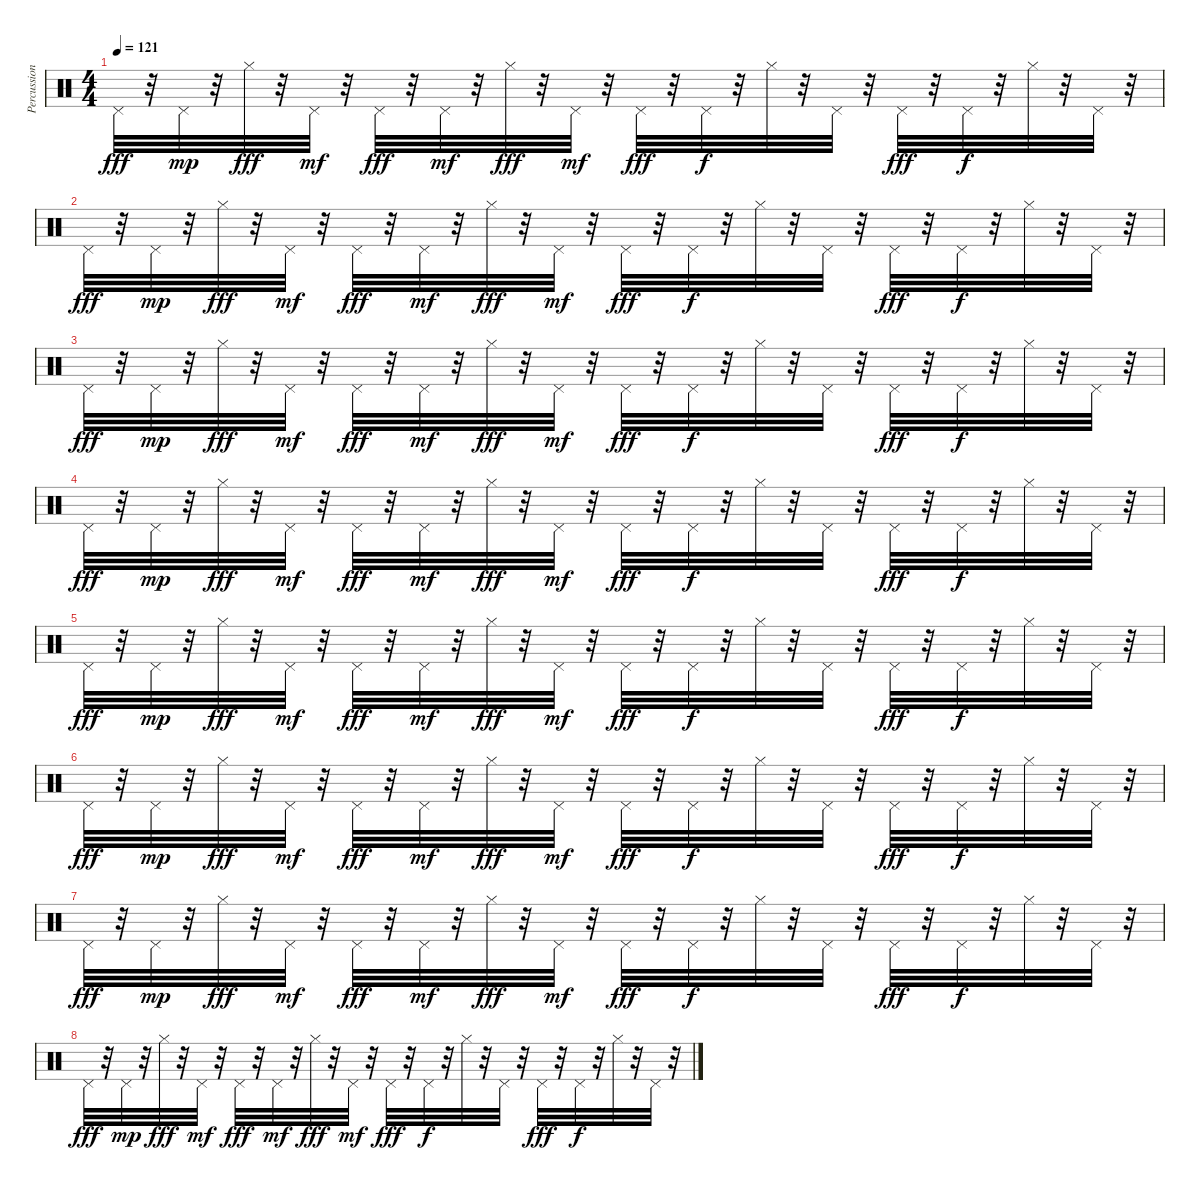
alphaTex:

\track ("Percussions" "Percussion") {instrument percussion}
\staff {score}
\articulation defaults
\ts (4 4)
\tempo 121
\clef neutral
\ks c "Pedal Hi-Hat (hit)".32{dy fff}
r.32 "Pedal Hi-Hat (hit)".32{dy mp} r.32 "Hi-Hat (closed)".32{dy fff} r.32 "Pedal Hi-Hat (hit)".32{dy mf} r.32 "Pedal Hi-Hat (hit)".32{dy fff} r.32 "Pedal Hi-Hat (hit)".32{dy mf} r.32 "Hi-Hat (closed)".32{dy fff} r.32 "Pedal Hi-Hat (hit)".32{dy mf} r.32 "Pedal Hi-Hat (hit)".32{dy fff} r.32 "Pedal Hi-Hat (hit)".32{dy f} r.32 "Hi-Hat (closed)".32 r.32 "Pedal Hi-Hat (hit)".32 r.32 "Pedal Hi-Hat (hit)".32{dy fff} r.32 "Pedal Hi-Hat (hit)".32{dy f} r.32 "Hi-Hat (closed)".32 r.32 "Pedal Hi-Hat (hit)".32 r.32 |
"Pedal Hi-Hat (hit)".32{dy fff} r.32 "Pedal Hi-Hat (hit)".32{dy mp} r.32 "Hi-Hat (closed)".32{dy fff} r.32 "Pedal Hi-Hat (hit)".32{dy mf} r.32 "Pedal Hi-Hat (hit)".32{dy fff} r.32 "Pedal Hi-Hat (hit)".32{dy mf} r.32 "Hi-Hat (closed)".32{dy fff} r.32 "Pedal Hi-Hat (hit)".32{dy mf} r.32 "Pedal Hi-Hat (hit)".32{dy fff} r.32 "Pedal Hi-Hat (hit)".32{dy f} r.32 "Hi-Hat (closed)".32 r.32 "Pedal Hi-Hat (hit)".32 r.32 "Pedal Hi-Hat (hit)".32{dy fff} r.32 "Pedal Hi-Hat (hit)".32{dy f} r.32 "Hi-Hat (closed)".32 r.32 "Pedal Hi-Hat (hit)".32 r.32 |
"Pedal Hi-Hat (hit)".32{dy fff} r.32 "Pedal Hi-Hat (hit)".32{dy mp} r.32 "Hi-Hat (closed)".32{dy fff} r.32 "Pedal Hi-Hat (hit)".32{dy mf} r.32 "Pedal Hi-Hat (hit)".32{dy fff} r.32 "Pedal Hi-Hat (hit)".32{dy mf} r.32 "Hi-Hat (closed)".32{dy fff} r.32 "Pedal Hi-Hat (hit)".32{dy mf} r.32 "Pedal Hi-Hat (hit)".32{dy fff} r.32 "Pedal Hi-Hat (hit)".32{dy f} r.32 "Hi-Hat (closed)".32 r.32 "Pedal Hi-Hat (hit)".32 r.32 "Pedal Hi-Hat (hit)".32{dy fff} r.32 "Pedal Hi-Hat (hit)".32{dy f} r.32 "Hi-Hat (closed)".32 r.32 "Pedal Hi-Hat (hit)".32 r.32 |
"Pedal Hi-Hat (hit)".32{dy fff} r.32 "Pedal Hi-Hat (hit)".32{dy mp} r.32 "Hi-Hat (closed)".32{dy fff} r.32 "Pedal Hi-Hat (hit)".32{dy mf} r.32 "Pedal Hi-Hat (hit)".32{dy fff} r.32 "Pedal Hi-Hat (hit)".32{dy mf} r.32 "Hi-Hat (closed)".32{dy fff} r.32 "Pedal Hi-Hat (hit)".32{dy mf} r.32 "Pedal Hi-Hat (hit)".32{dy fff} r.32 "Pedal Hi-Hat (hit)".32{dy f} r.32 "Hi-Hat (closed)".32 r.32 "Pedal Hi-Hat (hit)".32 r.32 "Pedal Hi-Hat (hit)".32{dy fff} r.32 "Pedal Hi-Hat (hit)".32{dy f} r.32 "Hi-Hat (closed)".32 r.32 "Pedal Hi-Hat (hit)".32 r.32 |
"Pedal Hi-Hat (hit)".32{dy fff} r.32 "Pedal Hi-Hat (hit)".32{dy mp} r.32 "Hi-Hat (closed)".32{dy fff} r.32 "Pedal Hi-Hat (hit)".32{dy mf} r.32 "Pedal Hi-Hat (hit)".32{dy fff} r.32 "Pedal Hi-Hat (hit)".32{dy mf} r.32 "Hi-Hat (closed)".32{dy fff} r.32 "Pedal Hi-Hat (hit)".32{dy mf} r.32 "Pedal Hi-Hat (hit)".32{dy fff} r.32 "Pedal Hi-Hat (hit)".32{dy f} r.32 "Hi-Hat (closed)".32 r.32 "Pedal Hi-Hat (hit)".32 r.32 "Pedal Hi-Hat (hit)".32{dy fff} r.32 "Pedal Hi-Hat (hit)".32{dy f} r.32 "Hi-Hat (closed)".32 r.32 "Pedal Hi-Hat (hit)".32 r.32 |
"Pedal Hi-Hat (hit)".32{dy fff} r.32 "Pedal Hi-Hat (hit)".32{dy mp} r.32 "Hi-Hat (closed)".32{dy fff} r.32 "Pedal Hi-Hat (hit)".32{dy mf} r.32 "Pedal Hi-Hat (hit)".32{dy fff} r.32 "Pedal Hi-Hat (hit)".32{dy mf} r.32 "Hi-Hat (closed)".32{dy fff} r.32 "Pedal Hi-Hat (hit)".32{dy mf} r.32 "Pedal Hi-Hat (hit)".32{dy fff} r.32 "Pedal Hi-Hat (hit)".32{dy f} r.32 "Hi-Hat (closed)".32 r.32 "Pedal Hi-Hat (hit)".32 r.32 "Pedal Hi-Hat (hit)".32{dy fff} r.32 "Pedal Hi-Hat (hit)".32{dy f} r.32 "Hi-Hat (closed)".32 r.32 "Pedal Hi-Hat (hit)".32 r.32 |
"Pedal Hi-Hat (hit)".32{dy fff} r.32 "Pedal Hi-Hat (hit)".32{dy mp} r.32 "Hi-Hat (closed)".32{dy fff} r.32 "Pedal Hi-Hat (hit)".32{dy mf} r.32 "Pedal Hi-Hat (hit)".32{dy fff} r.32 "Pedal Hi-Hat (hit)".32{dy mf} r.32 "Hi-Hat (closed)".32{dy fff} r.32 "Pedal Hi-Hat (hit)".32{dy mf} r.32 "Pedal Hi-Hat (hit)".32{dy fff} r.32 "Pedal Hi-Hat (hit)".32{dy f} r.32 "Hi-Hat (closed)".32 r.32 "Pedal Hi-Hat (hit)".32 r.32 "Pedal Hi-Hat (hit)".32{dy fff} r.32 "Pedal Hi-Hat (hit)".32{dy f} r.32 "Hi-Hat (closed)".32 r.32 "Pedal Hi-Hat (hit)".32 r.32 |
"Pedal Hi-Hat (hit)".32{dy fff} r.32 "Pedal Hi-Hat (hit)".32{dy mp} r.32 "Hi-Hat (closed)".32{dy fff} r.32 "Pedal Hi-Hat (hit)".32{dy mf} r.32 "Pedal Hi-Hat (hit)".32{dy fff} r.32 "Pedal Hi-Hat (hit)".32{dy mf} r.32 "Hi-Hat (closed)".32{dy fff} r.32 "Pedal Hi-Hat (hit)".32{dy mf} r.32 "Pedal Hi-Hat (hit)".32{dy fff} r.32 "Pedal Hi-Hat (hit)".32{dy f} r.32 "Hi-Hat (closed)".32 r.32 "Pedal Hi-Hat (hit)".32 r.32 "Pedal Hi-Hat (hit)".32{dy fff} r.32 "Pedal Hi-Hat (hit)".32{dy f} r.32 "Hi-Hat (closed)".32 r.32 "Pedal Hi-Hat (hit)".32 r.32
